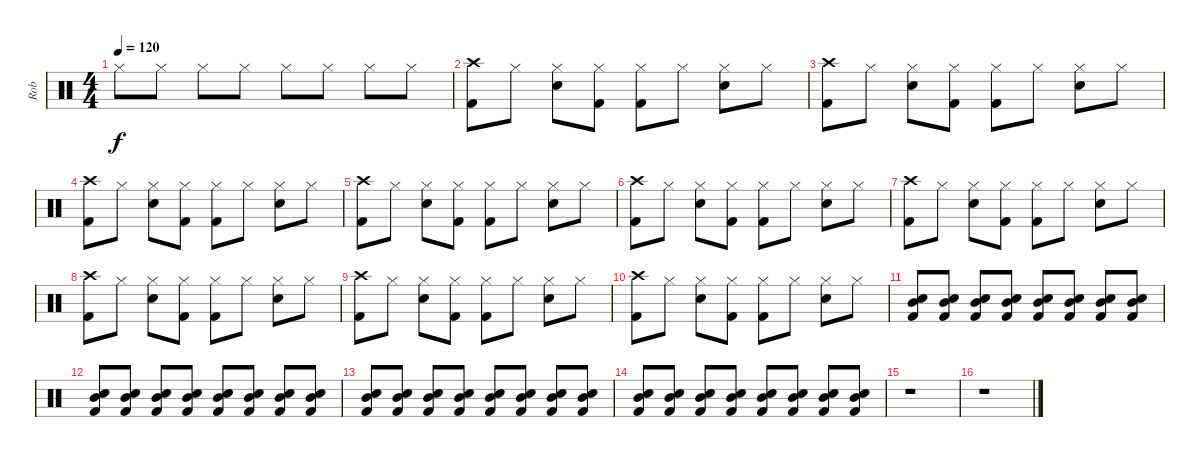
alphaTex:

\track ("Rob" "Rob") {instrument percussion}
\staff {score}
\articulation defaults
\ts (4 4)
\tempo 120
\clef neutral
\ks c "Hi-Hat (closed)".8{dy f} "Hi-Hat (closed)".8 "Hi-Hat (closed)".8 "Hi-Hat (closed)".8 "Hi-Hat (closed)".8 "Hi-Hat (closed)".8 "Hi-Hat (closed)".8 "Hi-Hat (closed)".8
|
("Crash high (hit)" "Kick (hit) 2").8 "Hi-Hat (closed)".8 ("Hi-Hat (closed)" "Snare (hit) 2").8 ("Hi-Hat (closed)" "Kick (hit) 2").8 ("Hi-Hat (closed)" "Kick (hit) 2").8 "Hi-Hat (closed)".8 ("Hi-Hat (closed)" "Snare (hit) 2").8 "Hi-Hat (closed)".8 |
("Crash high (hit)" "Kick (hit) 2").8 "Hi-Hat (closed)".8 ("Hi-Hat (closed)" "Snare (hit) 2").8 ("Hi-Hat (closed)" "Kick (hit) 2").8 ("Hi-Hat (closed)" "Kick (hit) 2").8 "Hi-Hat (closed)".8 ("Hi-Hat (closed)" "Snare (hit) 2").8 "Hi-Hat (closed)".8 |
("Crash high (hit)" "Kick (hit) 2").8 "Hi-Hat (closed)".8 ("Hi-Hat (closed)" "Snare (hit) 2").8 ("Hi-Hat (closed)" "Kick (hit) 2").8 ("Hi-Hat (closed)" "Kick (hit) 2").8 "Hi-Hat (closed)".8 ("Hi-Hat (closed)" "Snare (hit) 2").8 "Hi-Hat (closed)".8 |
("Crash high (hit)" "Kick (hit) 2").8 "Hi-Hat (closed)".8 ("Hi-Hat (closed)" "Snare (hit) 2").8 ("Hi-Hat (closed)" "Kick (hit) 2").8 ("Hi-Hat (closed)" "Kick (hit) 2").8 "Hi-Hat (closed)".8 ("Hi-Hat (closed)" "Snare (hit) 2").8 "Hi-Hat (closed)".8 |
("Crash high (hit)" "Kick (hit) 2").8 "Hi-Hat (closed)".8 ("Hi-Hat (closed)" "Snare (hit) 2").8 ("Hi-Hat (closed)" "Kick (hit) 2").8 ("Hi-Hat (closed)" "Kick (hit) 2").8 "Hi-Hat (closed)".8 ("Hi-Hat (closed)" "Snare (hit) 2").8 "Hi-Hat (closed)".8 |
("Crash high (hit)" "Kick (hit) 2").8 "Hi-Hat (closed)".8 ("Hi-Hat (closed)" "Snare (hit) 2").8 ("Hi-Hat (closed)" "Kick (hit) 2").8 ("Hi-Hat (closed)" "Kick (hit) 2").8 "Hi-Hat (closed)".8 ("Hi-Hat (closed)" "Snare (hit) 2").8 "Hi-Hat (closed)".8 |
("Crash high (hit)" "Kick (hit) 2").8 "Hi-Hat (closed)".8 ("Hi-Hat (closed)" "Snare (hit) 2").8 ("Hi-Hat (closed)" "Kick (hit) 2").8 ("Hi-Hat (closed)" "Kick (hit) 2").8 "Hi-Hat (closed)".8 ("Hi-Hat (closed)" "Snare (hit) 2").8 "Hi-Hat (closed)".8 |
("Crash high (hit)" "Kick (hit) 2").8 "Hi-Hat (closed)".8 ("Hi-Hat (closed)" "Snare (hit) 2").8 ("Hi-Hat (closed)" "Kick (hit) 2").8 ("Hi-Hat (closed)" "Kick (hit) 2").8 "Hi-Hat (closed)".8 ("Hi-Hat (closed)" "Snare (hit) 2").8 "Hi-Hat (closed)".8 |
("Crash high (hit)" "Kick (hit) 2").8 "Hi-Hat (closed)".8 ("Hi-Hat (closed)" "Snare (hit) 2").8 ("Hi-Hat (closed)" "Kick (hit) 2").8 ("Hi-Hat (closed)" "Kick (hit) 2").8 "Hi-Hat (closed)".8 ("Hi-Hat (closed)" "Snare (hit) 2").8 "Hi-Hat (closed)".8 |
("Snare (hit) 2" "Kick (hit) 2" "Mid Tom (hit)").8 ("Snare (hit) 2" "Kick (hit) 2" "Mid Tom (hit)").8 ("Snare (hit) 2" "Kick (hit) 2" "Mid Tom (hit)").8 ("Snare (hit) 2" "Kick (hit) 2" "Mid Tom (hit)").8 ("Snare (hit) 2" "Kick (hit) 2" "Mid Tom (hit)").8 ("Snare (hit) 2" "Kick (hit) 2" "Mid Tom (hit)").8 ("Snare (hit) 2" "Kick (hit) 2" "Mid Tom (hit)").8 ("Snare (hit) 2" "Kick (hit) 2" "Mid Tom (hit)").8 |
("Snare (hit) 2" "Kick (hit) 2" "Mid Tom (hit)").8 ("Snare (hit) 2" "Kick (hit) 2" "Mid Tom (hit)").8 ("Snare (hit) 2" "Kick (hit) 2" "Mid Tom (hit)").8 ("Snare (hit) 2" "Kick (hit) 2" "Mid Tom (hit)").8 ("Snare (hit) 2" "Kick (hit) 2" "Mid Tom (hit)").8 ("Snare (hit) 2" "Kick (hit) 2" "Mid Tom (hit)").8 ("Snare (hit) 2" "Kick (hit) 2" "Mid Tom (hit)").8 ("Snare (hit) 2" "Kick (hit) 2" "Mid Tom (hit)").8 |
("Snare (hit) 2" "Kick (hit) 2" "Mid Tom (hit)").8 ("Snare (hit) 2" "Kick (hit) 2" "Mid Tom (hit)").8 ("Snare (hit) 2" "Kick (hit) 2" "Mid Tom (hit)").8 ("Snare (hit) 2" "Kick (hit) 2" "Mid Tom (hit)").8 ("Snare (hit) 2" "Kick (hit) 2" "Mid Tom (hit)").8 ("Snare (hit) 2" "Kick (hit) 2" "Mid Tom (hit)").8 ("Snare (hit) 2" "Kick (hit) 2" "Mid Tom (hit)").8 ("Snare (hit) 2" "Kick (hit) 2" "Mid Tom (hit)").8 |
("Snare (hit) 2" "Kick (hit) 2" "Mid Tom (hit)").8 ("Snare (hit) 2" "Kick (hit) 2" "Mid Tom (hit)").8 ("Snare (hit) 2" "Kick (hit) 2" "Mid Tom (hit)").8 ("Snare (hit) 2" "Kick (hit) 2" "Mid Tom (hit)").8 ("Snare (hit) 2" "Kick (hit) 2" "Mid Tom (hit)").8 ("Snare (hit) 2" "Kick (hit) 2" "Mid Tom (hit)").8 ("Snare (hit) 2" "Kick (hit) 2" "Mid Tom (hit)").8 ("Snare (hit) 2" "Kick (hit) 2" "Mid Tom (hit)").8 |
r.1 |
r.1
